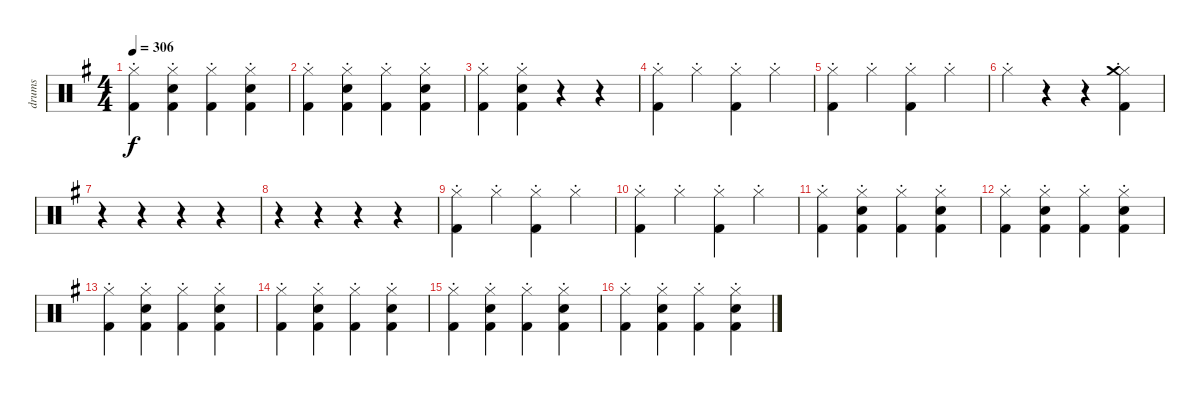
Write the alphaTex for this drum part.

\track ("drums" "drums") {instrument percussion}
\staff {score}
\articulation defaults
\ts (4 4)
\tempo 306
\clef neutral
\ks g
("Hi-Hat (closed)"{st} "Kick (hit) 2").4{dy f} ("Hi-Hat (closed)"{st} "Electric Snare (hit)" "Kick (hit) 2").4 ("Hi-Hat (closed)"{st} "Kick (hit) 2").4 ("Hi-Hat (closed)"{st} "Electric Snare (hit)" "Kick (hit) 2").4 |
("Hi-Hat (closed)"{st} "Kick (hit) 2").4 ("Hi-Hat (closed)"{st} "Electric Snare (hit)" "Kick (hit) 2").4 ("Hi-Hat (closed)"{st} "Kick (hit) 2").4 ("Hi-Hat (closed)"{st} "Electric Snare (hit)" "Kick (hit) 2").4 |
("Hi-Hat (closed)"{st} "Kick (hit) 2").4 ("Hi-Hat (closed)"{st} "Electric Snare (hit)" "Kick (hit) 2").4 r.4 r.4 |
("Hi-Hat (closed)"{st} "Kick (hit) 2").4 "Hi-Hat (closed)"{st}.4 ("Hi-Hat (closed)"{st} "Kick (hit) 2").4 "Hi-Hat (closed)"{st}.4 |
("Hi-Hat (closed)"{st} "Kick (hit) 2").4 "Hi-Hat (closed)"{st}.4 ("Hi-Hat (closed)"{st} "Kick (hit) 2").4 "Hi-Hat (closed)"{st}.4 |
"Hi-Hat (closed)"{st}.4 r.4 r.4 ("Hi-Hat (closed)"{st} "Crash medium (hit)" "Kick (hit) 2").4 |
r.4 r.4 r.4 r.4 |
r.4 r.4 r.4 r.4 |
("Hi-Hat (closed)"{st} "Kick (hit) 2").4 "Hi-Hat (closed)"{st}.4 ("Hi-Hat (closed)"{st} "Kick (hit) 2").4 "Hi-Hat (closed)"{st}.4 |
("Hi-Hat (closed)"{st} "Kick (hit) 2").4 "Hi-Hat (closed)"{st}.4 ("Hi-Hat (closed)"{st} "Kick (hit) 2").4 "Hi-Hat (closed)"{st}.4 |
("Hi-Hat (closed)"{st} "Kick (hit) 2").4 ("Hi-Hat (closed)"{st} "Electric Snare (hit)" "Kick (hit) 2").4 ("Hi-Hat (closed)"{st} "Kick (hit) 2").4 ("Hi-Hat (closed)"{st} "Electric Snare (hit)" "Kick (hit) 2").4 |
("Hi-Hat (closed)"{st} "Kick (hit) 2").4 ("Hi-Hat (closed)"{st} "Electric Snare (hit)" "Kick (hit) 2").4 ("Hi-Hat (closed)"{st} "Kick (hit) 2").4 ("Hi-Hat (closed)"{st} "Electric Snare (hit)" "Kick (hit) 2").4 |
("Hi-Hat (closed)"{st} "Kick (hit) 2").4 ("Hi-Hat (closed)"{st} "Electric Snare (hit)" "Kick (hit) 2").4 ("Hi-Hat (closed)"{st} "Kick (hit) 2").4 ("Hi-Hat (closed)"{st} "Electric Snare (hit)" "Kick (hit) 2").4 |
("Hi-Hat (closed)"{st} "Kick (hit) 2").4 ("Hi-Hat (closed)"{st} "Electric Snare (hit)" "Kick (hit) 2").4 ("Hi-Hat (closed)"{st} "Kick (hit) 2").4 ("Hi-Hat (closed)"{st} "Electric Snare (hit)" "Kick (hit) 2").4 |
("Hi-Hat (closed)"{st} "Kick (hit) 2").4 ("Hi-Hat (closed)"{st} "Electric Snare (hit)" "Kick (hit) 2").4 ("Hi-Hat (closed)"{st} "Kick (hit) 2").4 ("Hi-Hat (closed)"{st} "Electric Snare (hit)" "Kick (hit) 2").4 |
("Hi-Hat (closed)"{st} "Kick (hit) 2").4 ("Hi-Hat (closed)"{st} "Electric Snare (hit)" "Kick (hit) 2").4 ("Hi-Hat (closed)"{st} "Kick (hit) 2").4 ("Hi-Hat (closed)"{st} "Electric Snare (hit)" "Kick (hit) 2").4
